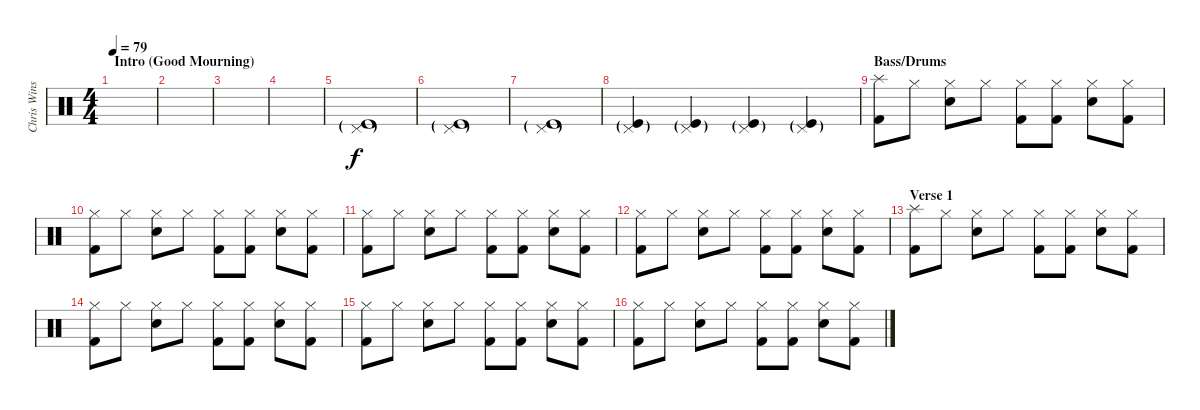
\track ("Chris Winship (Drums)" "Chris Wins") {instrument percussion}
\staff {score}
\articulation defaults
\ts (4 4)
\section ("" "Intro (Good Mourning)")
\tempo 79
\clef neutral
\ks c
|
|
|
|
("Pedal Hi-Hat (hit)"{g} "Kick (hit)"{g}).1 |
("Pedal Hi-Hat (hit)"{g} "Kick (hit)"{g}).1 |
("Pedal Hi-Hat (hit)"{g} "Kick (hit)"{g}).1 |
("Pedal Hi-Hat (hit)"{g} "Kick (hit)"{g}).4 ("Pedal Hi-Hat (hit)"{g} "Kick (hit)"{g}).4 ("Pedal Hi-Hat (hit)"{g} "Kick (hit)"{g}).4 ("Pedal Hi-Hat (hit)"{g} "Kick (hit)"{g}).4 |
\section ("" "Bass/Drums")
("Splash (hit)" "Kick (hit) 2").8{dy f} "Hi-Hat (closed)".8 ("Hi-Hat (closed)" "Snare (hit) 2").8 "Hi-Hat (closed)".8 ("Hi-Hat (closed)" "Kick (hit) 2").8 ("Hi-Hat (closed)" "Kick (hit) 2").8 ("Hi-Hat (closed)" "Snare (hit) 2").8 ("Hi-Hat (closed)" "Kick (hit) 2").8 |
("Hi-Hat (closed)" "Kick (hit) 2").8 "Hi-Hat (closed)".8 ("Hi-Hat (closed)" "Snare (hit) 2").8 "Hi-Hat (closed)".8 ("Hi-Hat (closed)" "Kick (hit) 2").8 ("Hi-Hat (closed)" "Kick (hit) 2").8 ("Hi-Hat (closed)" "Snare (hit) 2").8 ("Hi-Hat (closed)" "Kick (hit) 2").8 |
("Hi-Hat (closed)" "Kick (hit) 2").8 "Hi-Hat (closed)".8 ("Hi-Hat (closed)" "Snare (hit) 2").8 "Hi-Hat (closed)".8 ("Hi-Hat (closed)" "Kick (hit) 2").8 ("Hi-Hat (closed)" "Kick (hit) 2").8 ("Hi-Hat (closed)" "Snare (hit) 2").8 ("Hi-Hat (closed)" "Kick (hit) 2").8 |
("Hi-Hat (closed)" "Kick (hit) 2").8 "Hi-Hat (closed)".8 ("Hi-Hat (closed)" "Snare (hit) 2").8 "Hi-Hat (closed)".8 ("Hi-Hat (closed)" "Kick (hit) 2").8 ("Hi-Hat (closed)" "Kick (hit) 2").8 ("Hi-Hat (closed)" "Snare (hit) 2").8 ("Hi-Hat (closed)" "Kick (hit) 2").8 |
\section ("" "Verse 1")
("Splash (hit)" "Kick (hit) 2").8 "Hi-Hat (closed)".8 ("Hi-Hat (closed)" "Snare (hit) 2").8 "Hi-Hat (closed)".8 ("Hi-Hat (closed)" "Kick (hit) 2").8 ("Hi-Hat (closed)" "Kick (hit) 2").8 ("Hi-Hat (closed)" "Snare (hit) 2").8 ("Hi-Hat (closed)" "Kick (hit) 2").8 |
("Hi-Hat (closed)" "Kick (hit) 2").8 "Hi-Hat (closed)".8 ("Hi-Hat (closed)" "Snare (hit) 2").8 "Hi-Hat (closed)".8 ("Hi-Hat (closed)" "Kick (hit) 2").8 ("Hi-Hat (closed)" "Kick (hit) 2").8 ("Hi-Hat (closed)" "Snare (hit) 2").8 ("Hi-Hat (closed)" "Kick (hit) 2").8 |
("Hi-Hat (closed)" "Kick (hit) 2").8 "Hi-Hat (closed)".8 ("Hi-Hat (closed)" "Snare (hit) 2").8 "Hi-Hat (closed)".8 ("Hi-Hat (closed)" "Kick (hit) 2").8 ("Hi-Hat (closed)" "Kick (hit) 2").8 ("Hi-Hat (closed)" "Snare (hit) 2").8 ("Hi-Hat (closed)" "Kick (hit) 2").8 |
("Hi-Hat (closed)" "Kick (hit) 2").8 "Hi-Hat (closed)".8 ("Hi-Hat (closed)" "Snare (hit) 2").8 "Hi-Hat (closed)".8 ("Hi-Hat (closed)" "Kick (hit) 2").8 ("Hi-Hat (closed)" "Kick (hit) 2").8 ("Hi-Hat (closed)" "Snare (hit) 2").8 ("Hi-Hat (closed)" "Kick (hit) 2").8
